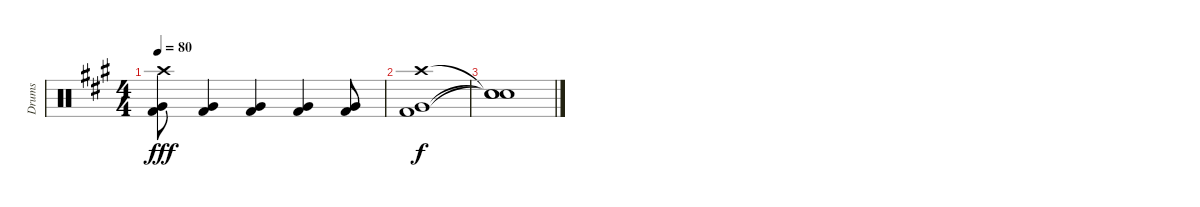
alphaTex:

\track ("Drums" "Drums") {instrument percussion}
\staff {score}
\articulation defaults
\ts (4 4)
\tempo 80
\clef neutral
\ks f#minor
("Crash high (hit)" "Very Low Tom (hit)" "Kick (hit) 2").8{dy fff} ("Very Low Tom (hit)" "Kick (hit) 2").4 ("Very Low Tom (hit)" "Kick (hit) 2").4 ("Very Low Tom (hit)" "Kick (hit) 2").4 ("Very Low Tom (hit)" "Kick (hit) 2").8 |
("Crash high (hit)" "Very Low Tom (hit)" "Kick (hit) 2").1{dy f} |
("Snare (hit)"{t} "Snare (hit)"{t} "Snare (hit)"{t}).1
